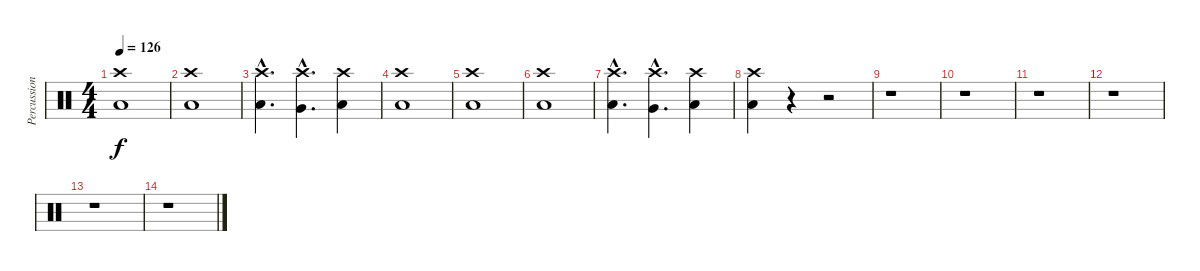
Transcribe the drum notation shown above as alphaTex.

\track ("Percussion" "Percussion") {instrument percussion}
\staff {score}
\articulation defaults
\ts (4 4)
\tempo 126
\clef neutral
\ks c
("Low Tom (hit)" "Crash high (hit)").1{dy f} |
("Low Tom (hit)" "Crash high (hit)").1 |
("Low Tom (hit)"{hac} "Crash high (hit)"{hac}).4{d} ("Very Low Tom (hit)"{hac} "Crash high (hit)"{hac}).4{d} ("Low Floor Tom (hit)" "Crash high (hit)").4 |
("Low Tom (hit)" "Crash high (hit)").1 |
("Low Tom (hit)" "Crash high (hit)").1 |
("Low Tom (hit)" "Crash high (hit)").1 |
("Low Tom (hit)"{hac} "Crash high (hit)"{hac}).4{d} ("Very Low Tom (hit)"{hac} "Crash high (hit)"{hac}).4{d} ("Low Floor Tom (hit)" "Crash high (hit)").4 |
("Low Floor Tom (hit)" "Crash high (hit)").4 r.4 r.2 |
r.1 |
r.1 |
r.1 |
r.1 |
r.1 |
r.1
